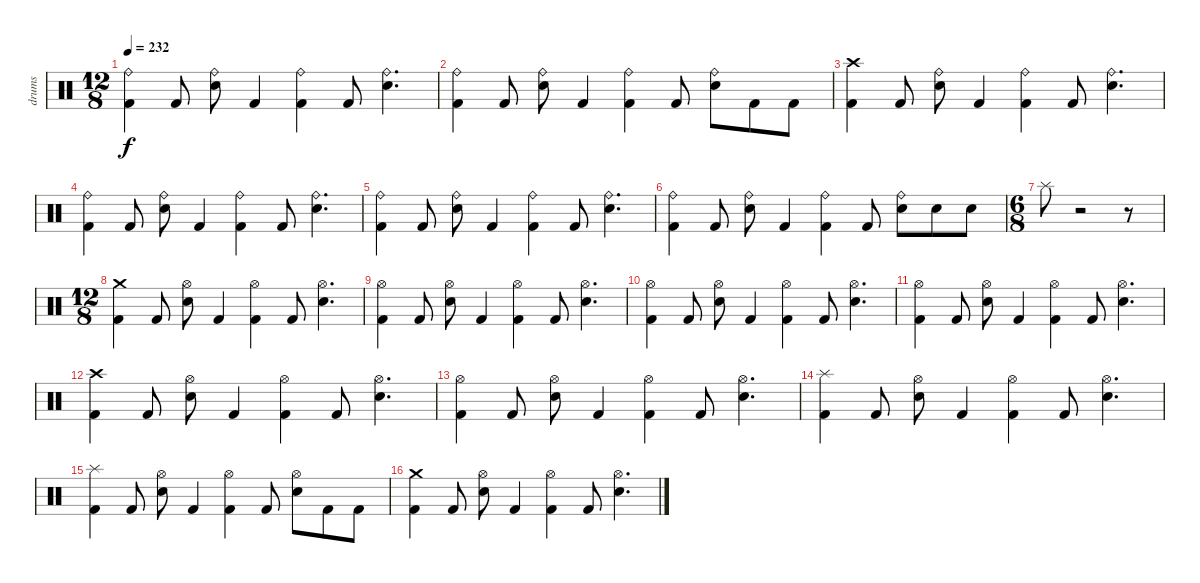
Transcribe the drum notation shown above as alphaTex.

\track ("drums" "drums") {instrument percussion}
\staff {score}
\articulation defaults
\ts (12 8)
\tempo 232
\clef neutral
\ks c
("Kick (hit) 2" "Ride (bell)").4{dy f} "Kick (hit) 2".8 ("Ride (bell)" "Electric Snare (hit)").8 "Kick (hit) 2".4 ("Kick (hit) 2" "Ride (bell)").4 "Kick (hit) 2".8 ("Ride (bell)" "Electric Snare (hit)").4{d} |
("Kick (hit) 2" "Ride (bell)").4 "Kick (hit) 2".8 ("Ride (bell)" "Electric Snare (hit)").8 "Kick (hit) 2".4 ("Ride (bell)" "Kick (hit) 2").4 "Kick (hit) 2".8 ("Ride (bell)" "Electric Snare (hit)").8 "Kick (hit) 2".8 "Kick (hit) 2".8 |
("Crash high (hit)" "Kick (hit) 2").4 "Kick (hit) 2".8 ("Ride (bell)" "Electric Snare (hit)").8 "Kick (hit) 2".4 ("Ride (bell)" "Kick (hit) 2").4 "Kick (hit) 2".8 ("Ride (bell)" "Electric Snare (hit)").4{d} |
("Ride (bell)" "Kick (hit) 2").4 "Kick (hit) 2".8 ("Ride (bell)" "Electric Snare (hit)").8 "Kick (hit) 2".4 ("Ride (bell)" "Kick (hit) 2").4 "Kick (hit) 2".8 ("Ride (bell)" "Electric Snare (hit)").4{d} |
("Kick (hit) 2" "Ride (bell)").4 "Kick (hit) 2".8 ("Ride (bell)" "Electric Snare (hit)").8 "Kick (hit) 2".4 ("Kick (hit) 2" "Ride (bell)").4 "Kick (hit) 2".8 ("Ride (bell)" "Electric Snare (hit)").4{d} |
("Kick (hit) 2" "Ride (bell)").4 "Kick (hit) 2".8 ("Ride (bell)" "Electric Snare (hit)").8 "Kick (hit) 2".4 ("Ride (bell)" "Kick (hit) 2").4 "Kick (hit) 2".8 ("Ride (bell)" "Electric Snare (hit)").8 "Electric Snare (hit)".8 "Electric Snare (hit)".8 |
\ts (6 8)
"Splash (hit)".8 r.2 r.8 |
\ts (12 8)
("Kick (hit) 2" "Crash medium (hit)").4 "Kick (hit) 2".8 ("Electric Snare (hit)" "Hi-Hat (open)").8 "Kick (hit) 2".4 ("Kick (hit) 2" "Hi-Hat (open)").4 "Kick (hit) 2".8 ("Electric Snare (hit)" "Hi-Hat (open)").4{d} |
("Hi-Hat (open)" "Kick (hit) 2").4 "Kick (hit) 2".8 ("Hi-Hat (open)" "Electric Snare (hit)").8 "Kick (hit) 2".4 ("Hi-Hat (open)" "Kick (hit) 2").4 "Kick (hit) 2".8 ("Hi-Hat (open)" "Electric Snare (hit)").4{d} |
("Hi-Hat (open)" "Kick (hit) 2").4 "Kick (hit) 2".8 ("Hi-Hat (open)" "Electric Snare (hit)").8 "Kick (hit) 2".4 ("Hi-Hat (open)" "Kick (hit) 2").4 "Kick (hit) 2".8 ("Hi-Hat (open)" "Electric Snare (hit)").4{d} |
("Hi-Hat (open)" "Kick (hit) 2").4 "Kick (hit) 2".8 ("Hi-Hat (open)" "Electric Snare (hit)").8 "Kick (hit) 2".4 ("Hi-Hat (open)" "Kick (hit) 2").4 "Kick (hit) 2".8 ("Hi-Hat (open)" "Electric Snare (hit)").4{d} |
("Kick (hit) 2" "Crash high (hit)").4 "Kick (hit) 2".8 ("Electric Snare (hit)" "Hi-Hat (open)").8 "Kick (hit) 2".4 ("Kick (hit) 2" "Hi-Hat (open)").4 "Kick (hit) 2".8 ("Electric Snare (hit)" "Hi-Hat (open)").4{d} |
("Hi-Hat (open)" "Kick (hit) 2").4 "Kick (hit) 2".8 ("Hi-Hat (open)" "Electric Snare (hit)").8 "Kick (hit) 2".4 ("Hi-Hat (open)" "Kick (hit) 2").4 "Kick (hit) 2".8 ("Hi-Hat (open)" "Electric Snare (hit)").4{d} |
("Splash (hit)" "Kick (hit) 2").4 "Kick (hit) 2".8 ("Hi-Hat (open)" "Electric Snare (hit)").8 "Kick (hit) 2".4 ("Hi-Hat (open)" "Kick (hit) 2").4 "Kick (hit) 2".8 ("Hi-Hat (open)" "Electric Snare (hit)").4{d} |
("Splash (hit)" "Kick (hit) 2").4 "Kick (hit) 2".8 ("Hi-Hat (open)" "Electric Snare (hit)").8 "Kick (hit) 2".4 ("Hi-Hat (open)" "Kick (hit) 2").4 "Kick (hit) 2".8 ("Electric Snare (hit)" "Hi-Hat (open)").8 "Kick (hit) 2".8 "Kick (hit) 2".8 |
("Kick (hit) 2" "Crash medium (hit)").4 "Kick (hit) 2".8 ("Electric Snare (hit)" "Hi-Hat (open)").8 "Kick (hit) 2".4 ("Kick (hit) 2" "Hi-Hat (open)").4 "Kick (hit) 2".8 ("Electric Snare (hit)" "Hi-Hat (open)").4{d}
